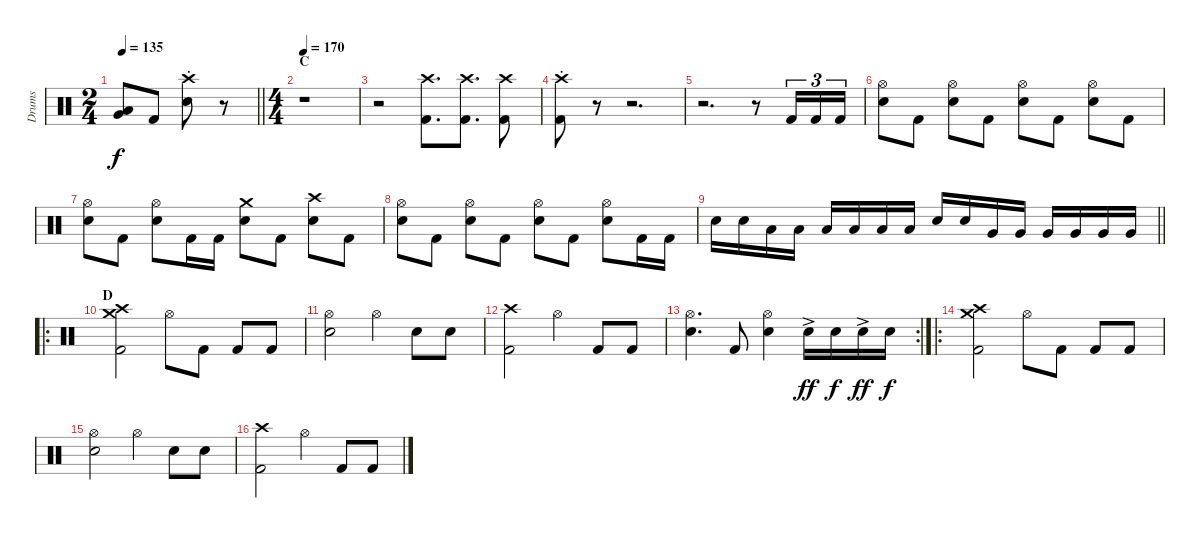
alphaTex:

\track ("Drums" "Drums") {instrument percussion}
\staff {score}
\articulation defaults
\ts (2 4)
\tempo 135
\clef neutral
\barLineRight lightlight
\ks c
("Very Low Tom (hit)" "Low Floor Tom (hit)").8{dy f} "Kick (hit) 2".8 ("Crash high (hit)"{st} "Electric Snare (hit)").8 r.8{volume 0} |
\ts (4 4)
\section ("" "C")
\tempo 170
r.1 |
r.2 ("Crash high (hit)" "Kick (hit) 2").8{d volume 14} ("Crash high (hit)" "Kick (hit) 2").8{d} ("Crash high (hit)" "Kick (hit) 2").8 |
("Crash high (hit)"{st} "Kick (hit) 2").8 r.8{volume 0} r.2{d} |
r.2{d} r.8 "Kick (hit) 2".16{tu (3 2) volume 14} "Kick (hit) 2".16{tu (3 2)} "Kick (hit) 2".16{tu (3 2)} |
("Hi-Hat (open)" "Electric Snare (hit)").8 "Kick (hit) 2".8 ("Hi-Hat (open)" "Electric Snare (hit)").8 "Kick (hit) 2".8 ("Hi-Hat (open)" "Electric Snare (hit)").8 "Kick (hit) 2".8 ("Hi-Hat (open)" "Electric Snare (hit)").8 "Kick (hit) 2".8 |
("Hi-Hat (open)" "Electric Snare (hit)").8 "Kick (hit) 2".8 ("Hi-Hat (open)" "Electric Snare (hit)").8 "Kick (hit) 2".16 "Kick (hit) 2".16 ("Crash medium (hit)" "Electric Snare (hit)").8 "Kick (hit) 2".8 ("Crash high (hit)" "Electric Snare (hit)").8 "Kick (hit) 2".8 |
("Hi-Hat (open)" "Electric Snare (hit)").8 "Kick (hit) 2".8 ("Hi-Hat (open)" "Electric Snare (hit)").8 "Kick (hit) 2".8 ("Hi-Hat (open)" "Electric Snare (hit)").8 "Kick (hit) 2".8 ("Hi-Hat (open)" "Electric Snare (hit)").8 "Kick (hit) 2".16 "Kick (hit) 2".16 |
\barLineRight lightlight "Electric Snare (hit)".16 "Electric Snare (hit)".16 "Low Tom (hit)".16 "Low Tom (hit)".16 "Low Tom (hit)".16 "Low Tom (hit)".16 "Low Tom (hit)".16 "Low Tom (hit)".16 "Electric Snare (hit)".16 "Electric Snare (hit)".16 "Very Low Tom (hit)".16 "Very Low Tom (hit)".16 "Very Low Tom (hit)".16 "Very Low Tom (hit)".16 "Very Low Tom (hit)".16 "Very Low Tom (hit)".16
|
\ro
\section ("" "D")
("Crash medium (hit)" "Crash high (hit)" "Kick (hit) 2").2 "Hi-Hat (open)".8 "Kick (hit) 2".8 "Kick (hit) 2".8 "Kick (hit) 2".8 |
("Hi-Hat (open)" "Electric Snare (hit)").2 "Hi-Hat (open)".4 "Electric Snare (hit)".8 "Electric Snare (hit)".8 |
("Crash high (hit)" "Kick (hit) 2").2 "Hi-Hat (open)".4 "Kick (hit) 2".8 "Kick (hit) 2".8 |
\rc 2
("Hi-Hat (open)" "Electric Snare (hit)").4{d} "Kick (hit) 2".8 ("Hi-Hat (open)" "Electric Snare (hit)").4 "Electric Snare (hit)"{ac}.16{dy ff} "Electric Snare (hit)".16{dy f} "Electric Snare (hit)"{ac}.16{dy ff} "Electric Snare (hit)".16{dy f} |
\ro
("Crash medium (hit)" "Crash high (hit)" "Kick (hit) 2").2 "Hi-Hat (open)".8 "Kick (hit) 2".8 "Kick (hit) 2".8 "Kick (hit) 2".8 |
("Hi-Hat (open)" "Electric Snare (hit)").2 "Hi-Hat (open)".4 "Electric Snare (hit)".8 "Electric Snare (hit)".8 |
("Crash high (hit)" "Kick (hit) 2").2 "Hi-Hat (open)".4 "Kick (hit) 2".8 "Kick (hit) 2".8
